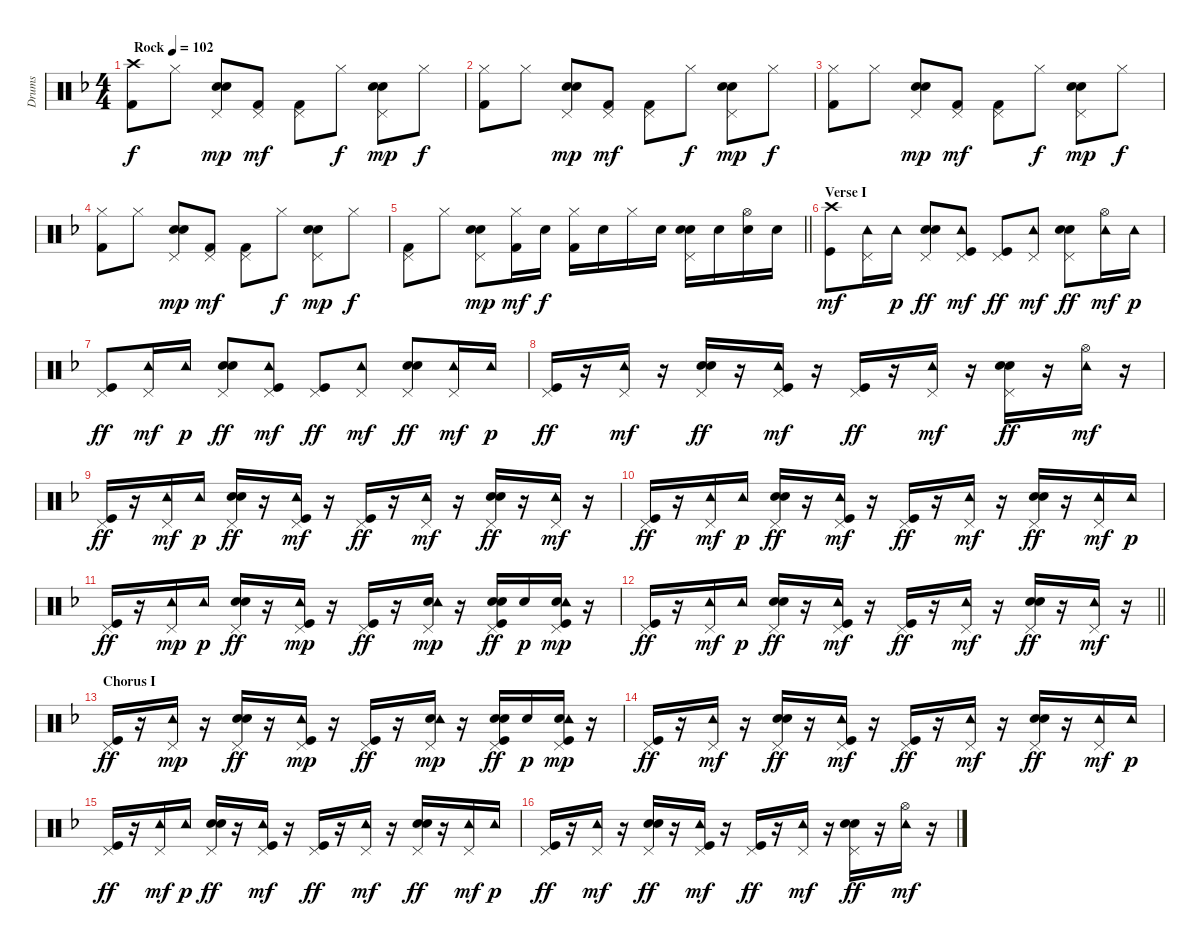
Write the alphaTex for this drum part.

\track ("Drums   " "Drums   ") {instrument percussion}
\staff {score}
\articulation defaults
\ts (4 4)
\tempo (102 "Rock")
\clef neutral
\ks f
("Crash high (hit)" "Kick (hit) 2").8{dy f} "Hi-Hat (closed)".8 ("Pedal Hi-Hat (hit)" "Electric Snare (hit)" "Hand Clap (hit)").8{dy mp} ("Pedal Hi-Hat (hit)" "Kick (hit) 2").8{dy mf} ("Pedal Hi-Hat (hit)" "Kick (hit) 2").8 "Hi-Hat (closed)".8{dy f} ("Pedal Hi-Hat (hit)" "Electric Snare (hit)" "Hand Clap (hit)").8{dy mp} "Hi-Hat (closed)".8{dy f} |
("Hi-Hat (closed)" "Kick (hit) 2").8 "Hi-Hat (closed)".8 ("Pedal Hi-Hat (hit)" "Electric Snare (hit)" "Hand Clap (hit)").8{dy mp} ("Pedal Hi-Hat (hit)" "Kick (hit) 2").8{dy mf} ("Pedal Hi-Hat (hit)" "Kick (hit) 2").8 "Hi-Hat (closed)".8{dy f} ("Pedal Hi-Hat (hit)" "Electric Snare (hit)" "Hand Clap (hit)").8{dy mp} "Hi-Hat (closed)".8{dy f} |
("Hi-Hat (closed)" "Kick (hit) 2").8 "Hi-Hat (closed)".8 ("Pedal Hi-Hat (hit)" "Electric Snare (hit)" "Hand Clap (hit)").8{dy mp} ("Pedal Hi-Hat (hit)" "Kick (hit) 2").8{dy mf} ("Pedal Hi-Hat (hit)" "Kick (hit) 2").8 "Hi-Hat (closed)".8{dy f} ("Pedal Hi-Hat (hit)" "Electric Snare (hit)" "Hand Clap (hit)").8{dy mp} "Hi-Hat (closed)".8{dy f} |
("Hi-Hat (closed)" "Kick (hit) 2").8 "Hi-Hat (closed)".8 ("Pedal Hi-Hat (hit)" "Electric Snare (hit)" "Hand Clap (hit)").8{dy mp} ("Pedal Hi-Hat (hit)" "Kick (hit) 2").8{dy mf} ("Pedal Hi-Hat (hit)" "Kick (hit) 2").8 "Hi-Hat (closed)".8{dy f} ("Pedal Hi-Hat (hit)" "Electric Snare (hit)" "Hand Clap (hit)").8{dy mp} "Hi-Hat (closed)".8{dy f} |
\barLineRight lightlight
("Pedal Hi-Hat (hit)" "Kick (hit) 2").8 "Hi-Hat (closed)".8 ("Pedal Hi-Hat (hit)" "Electric Snare (hit)" "Hand Clap (hit)").8{dy mp} ("Hi-Hat (closed)" "Kick (hit) 2").16{dy mf} "Electric Snare (hit)".16{dy f} ("Hi-Hat (closed)" "Kick (hit) 2").16 "Electric Snare (hit)".16 "Hi-Hat (closed)".16 "Electric Snare (hit)".16 ("Pedal Hi-Hat (hit)" "Electric Snare (hit)" "Hand Clap (hit)").16 "Electric Snare (hit)".16 ("Hi-Hat (open)" "Electric Snare (hit)").16 "Electric Snare (hit)".16 |
\section ("" "Verse I")
("Kick (hit)" "Crash high (hit)").8{dy mf} ("Pedal Hi-Hat (hit)" "Tambourine (hit)").16 "Tambourine (hit)".16{dy p} ("Electric Snare (hit)" "Pedal Hi-Hat (hit)" "Hand Clap (hit)").8{dy ff} ("Kick (hit)" "Pedal Hi-Hat (hit)" "Tambourine (hit)").8{dy mf} ("Kick (hit)" "Pedal Hi-Hat (hit)").8{dy ff} ("Pedal Hi-Hat (hit)" "Tambourine (hit)").8{dy mf} ("Electric Snare (hit)" "Pedal Hi-Hat (hit)" "Hand Clap (hit)").8{dy ff} ("Hi-Hat (open)" "Tambourine (hit)").16{dy mf} "Tambourine (hit)".16{dy p} |
("Kick (hit)" "Pedal Hi-Hat (hit)").8{dy ff} ("Pedal Hi-Hat (hit)" "Tambourine (hit)").16{dy mf} "Tambourine (hit)".16{dy p} ("Electric Snare (hit)" "Pedal Hi-Hat (hit)" "Hand Clap (hit)").8{dy ff} ("Kick (hit)" "Pedal Hi-Hat (hit)" "Tambourine (hit)").8{dy mf} ("Kick (hit)" "Pedal Hi-Hat (hit)").8{dy ff} ("Pedal Hi-Hat (hit)" "Tambourine (hit)").8{dy mf} ("Electric Snare (hit)" "Pedal Hi-Hat (hit)" "Hand Clap (hit)").8{dy ff} ("Pedal Hi-Hat (hit)" "Tambourine (hit)").16{dy mf} "Tambourine (hit)".16{dy p} |
("Kick (hit)" "Pedal Hi-Hat (hit)").16{dy ff} r.16 ("Pedal Hi-Hat (hit)" "Tambourine (hit)").16{dy mf} r.16 ("Electric Snare (hit)" "Pedal Hi-Hat (hit)" "Hand Clap (hit)").16{dy ff} r.16 ("Kick (hit)" "Pedal Hi-Hat (hit)" "Tambourine (hit)").16{dy mf} r.16 ("Kick (hit)" "Pedal Hi-Hat (hit)").16{dy ff} r.16 ("Pedal Hi-Hat (hit)" "Tambourine (hit)").16{dy mf} r.16 ("Electric Snare (hit)" "Pedal Hi-Hat (hit)" "Hand Clap (hit)").16{dy ff} r.16 ("Hi-Hat (open)" "Tambourine (hit)").16{dy mf} r.16 |
("Kick (hit)" "Pedal Hi-Hat (hit)").16{dy ff} r.16 ("Pedal Hi-Hat (hit)" "Tambourine (hit)").16{dy mf} "Tambourine (hit)".16{dy p} ("Electric Snare (hit)" "Pedal Hi-Hat (hit)" "Hand Clap (hit)").16{dy ff} r.16 ("Kick (hit)" "Pedal Hi-Hat (hit)" "Tambourine (hit)").16{dy mf} r.16 ("Kick (hit)" "Pedal Hi-Hat (hit)").16{dy ff} r.16 ("Pedal Hi-Hat (hit)" "Tambourine (hit)").16{dy mf} r.16 ("Electric Snare (hit)" "Pedal Hi-Hat (hit)" "Hand Clap (hit)").16{dy ff} r.16 ("Pedal Hi-Hat (hit)" "Tambourine (hit)").16{dy mf} r.16 |
("Kick (hit)" "Pedal Hi-Hat (hit)").16{dy ff} r.16 ("Pedal Hi-Hat (hit)" "Tambourine (hit)").16{dy mf} "Tambourine (hit)".16{dy p} ("Electric Snare (hit)" "Pedal Hi-Hat (hit)" "Hand Clap (hit)").16{dy ff} r.16 ("Kick (hit)" "Pedal Hi-Hat (hit)" "Tambourine (hit)").16{dy mf} r.16 ("Kick (hit)" "Pedal Hi-Hat (hit)").16{dy ff} r.16 ("Pedal Hi-Hat (hit)" "Tambourine (hit)").16{dy mf} r.16 ("Electric Snare (hit)" "Pedal Hi-Hat (hit)" "Hand Clap (hit)").16{dy ff} r.16 ("Pedal Hi-Hat (hit)" "Tambourine (hit)").16{dy mf} "Tambourine (hit)".16{dy p} |
("Kick (hit)" "Pedal Hi-Hat (hit)").16{dy ff} r.16 ("Pedal Hi-Hat (hit)" "Tambourine (hit)").16{dy mp} "Tambourine (hit)".16{dy p} ("Electric Snare (hit)" "Pedal Hi-Hat (hit)" "Hand Clap (hit)").16{dy ff} r.16 ("Kick (hit)" "Pedal Hi-Hat (hit)" "Tambourine (hit)").16{dy mp} r.16 ("Kick (hit)" "Pedal Hi-Hat (hit)").16{dy ff} r.16 ("Electric Snare (hit)" "Pedal Hi-Hat (hit)" "Tambourine (hit)").16{dy mp} r.16 ("Kick (hit)" "Electric Snare (hit)" "Pedal Hi-Hat (hit)" "Hand Clap (hit)").16{dy ff} "Electric Snare (hit)".16{dy p} ("Kick (hit)" "Electric Snare (hit)" "Pedal Hi-Hat (hit)" "Tambourine (hit)").16{dy mp} r.16 |
\barLineRight lightlight
("Kick (hit)" "Pedal Hi-Hat (hit)").16{dy ff} r.16 ("Pedal Hi-Hat (hit)" "Tambourine (hit)").16{dy mf} "Tambourine (hit)".16{dy p} ("Electric Snare (hit)" "Pedal Hi-Hat (hit)" "Hand Clap (hit)").16{dy ff} r.16 ("Kick (hit)" "Pedal Hi-Hat (hit)" "Tambourine (hit)").16{dy mf} r.16 ("Kick (hit)" "Pedal Hi-Hat (hit)").16{dy ff} r.16 ("Pedal Hi-Hat (hit)" "Tambourine (hit)").16{dy mf} r.16 ("Electric Snare (hit)" "Pedal Hi-Hat (hit)" "Hand Clap (hit)").16{dy ff} r.16 ("Pedal Hi-Hat (hit)" "Tambourine (hit)").16{dy mf} r.16 |
\section ("" "Chorus I")
("Kick (hit)" "Pedal Hi-Hat (hit)").16{dy ff} r.16 ("Pedal Hi-Hat (hit)" "Tambourine (hit)").16{dy mp} r.16 ("Electric Snare (hit)" "Pedal Hi-Hat (hit)" "Hand Clap (hit)").16{dy ff} r.16 ("Kick (hit)" "Pedal Hi-Hat (hit)" "Tambourine (hit)").16{dy mp} r.16 ("Kick (hit)" "Pedal Hi-Hat (hit)").16{dy ff} r.16 ("Electric Snare (hit)" "Pedal Hi-Hat (hit)" "Tambourine (hit)").16{dy mp} r.16 ("Kick (hit)" "Electric Snare (hit)" "Pedal Hi-Hat (hit)" "Hand Clap (hit)").16{dy ff} "Electric Snare (hit)".16{dy p} ("Kick (hit)" "Electric Snare (hit)" "Pedal Hi-Hat (hit)" "Tambourine (hit)").16{dy mp} r.16 |
("Kick (hit)" "Pedal Hi-Hat (hit)").16{dy ff} r.16 ("Pedal Hi-Hat (hit)" "Tambourine (hit)").16{dy mf} r.16 ("Electric Snare (hit)" "Pedal Hi-Hat (hit)" "Hand Clap (hit)").16{dy ff} r.16 ("Kick (hit)" "Pedal Hi-Hat (hit)" "Tambourine (hit)").16{dy mf} r.16 ("Kick (hit)" "Pedal Hi-Hat (hit)").16{dy ff} r.16 ("Pedal Hi-Hat (hit)" "Tambourine (hit)").16{dy mf} r.16 ("Electric Snare (hit)" "Pedal Hi-Hat (hit)" "Hand Clap (hit)").16{dy ff} r.16 ("Pedal Hi-Hat (hit)" "Tambourine (hit)").16{dy mf} "Tambourine (hit)".16{dy p} |
("Kick (hit)" "Pedal Hi-Hat (hit)").16{dy ff} r.16 ("Pedal Hi-Hat (hit)" "Tambourine (hit)").16{dy mf} "Tambourine (hit)".16{dy p} ("Electric Snare (hit)" "Pedal Hi-Hat (hit)" "Hand Clap (hit)").16{dy ff} r.16 ("Kick (hit)" "Pedal Hi-Hat (hit)" "Tambourine (hit)").16{dy mf} r.16 ("Kick (hit)" "Pedal Hi-Hat (hit)").16{dy ff} r.16 ("Pedal Hi-Hat (hit)" "Tambourine (hit)").16{dy mf} r.16 ("Electric Snare (hit)" "Pedal Hi-Hat (hit)" "Hand Clap (hit)").16{dy ff} r.16 ("Pedal Hi-Hat (hit)" "Tambourine (hit)").16{dy mf} "Tambourine (hit)".16{dy p} |
("Kick (hit)" "Pedal Hi-Hat (hit)").16{dy ff} r.16 ("Pedal Hi-Hat (hit)" "Tambourine (hit)").16{dy mf} r.16 ("Electric Snare (hit)" "Pedal Hi-Hat (hit)" "Hand Clap (hit)").16{dy ff} r.16 ("Kick (hit)" "Pedal Hi-Hat (hit)" "Tambourine (hit)").16{dy mf} r.16 ("Kick (hit)" "Pedal Hi-Hat (hit)").16{dy ff} r.16 ("Pedal Hi-Hat (hit)" "Tambourine (hit)").16{dy mf} r.16 ("Electric Snare (hit)" "Pedal Hi-Hat (hit)" "Hand Clap (hit)").16{dy ff} r.16 ("Hi-Hat (open)" "Tambourine (hit)").16{dy mf} r.16
